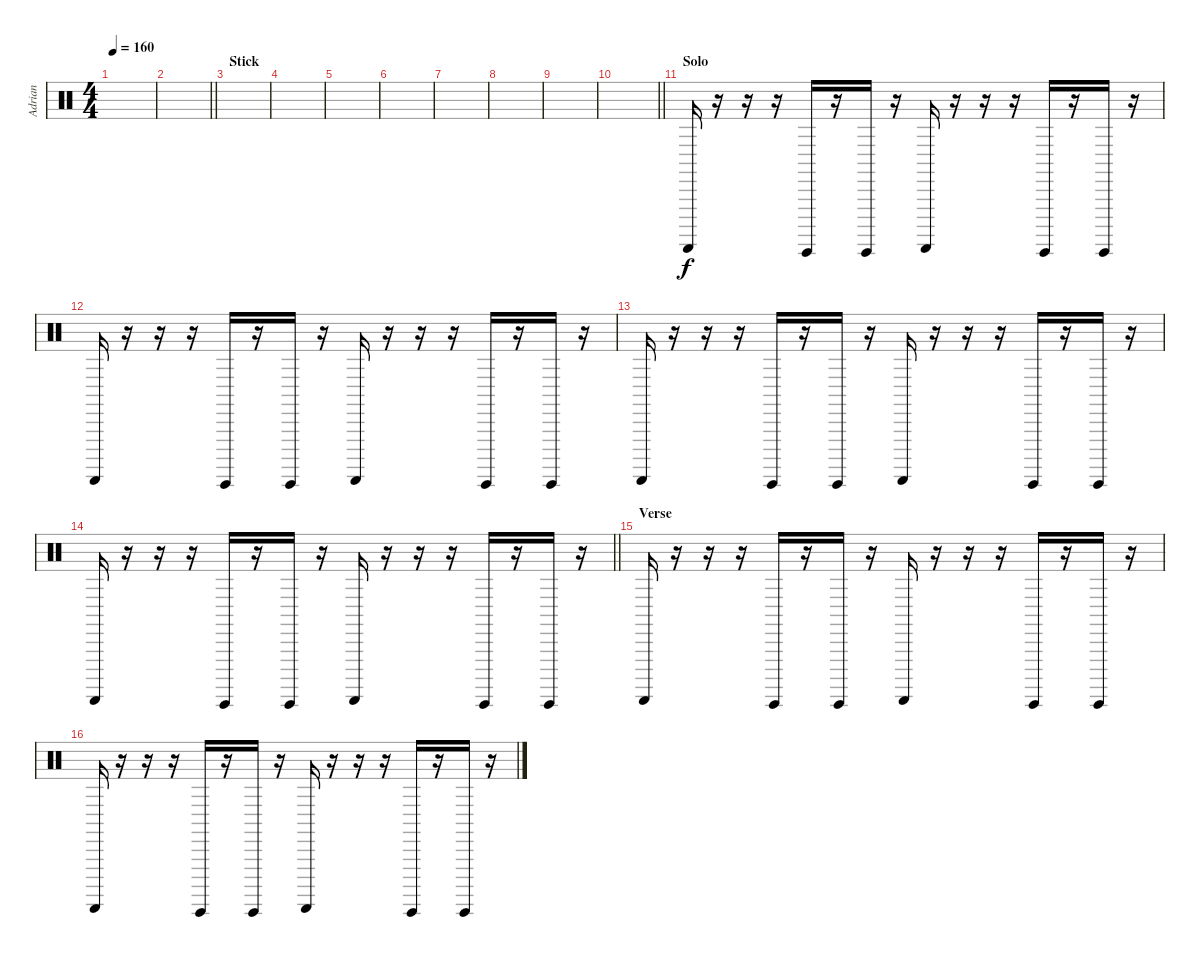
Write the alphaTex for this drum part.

\track ("Adrian" "Adrian") {instrument percussion}
\staff {score}
\articulation defaults
\ts (4 4)
\tempo 160
\clef neutral
\ks c
|
\barLineRight lightlight
|
\section ("" "Stick")
|
|
|
|
|
|
|
\barLineRight lightlight
|
\section ("" "Solo")
"Guiro (scrap-return)".16 r.16 r.16 r.16 "Guiro (hit)".16 r.16 "Guiro (hit)".16 r.16 "Guiro (scrap-return)".16 r.16 r.16 r.16 "Guiro (hit)".16 r.16 "Guiro (hit)".16 r.16 |
"Guiro (scrap-return)".16 r.16 r.16 r.16 "Guiro (hit)".16 r.16 "Guiro (hit)".16 r.16 "Guiro (scrap-return)".16 r.16 r.16 r.16 "Guiro (hit)".16 r.16 "Guiro (hit)".16 r.16 |
"Guiro (scrap-return)".16 r.16 r.16 r.16 "Guiro (hit)".16 r.16 "Guiro (hit)".16 r.16 "Guiro (scrap-return)".16 r.16 r.16 r.16 "Guiro (hit)".16 r.16 "Guiro (hit)".16 r.16 |
\barLineRight lightlight "Guiro (scrap-return)".16
r.16 r.16 r.16 "Guiro (hit)".16 r.16 "Guiro (hit)".16 r.16 "Guiro (scrap-return)".16 r.16 r.16 r.16 "Guiro (hit)".16 r.16 "Guiro (hit)".16 r.16 |
\section ("" "Verse")
"Guiro (scrap-return)".16 r.16 r.16 r.16 "Guiro (hit)".16 r.16 "Guiro (hit)".16 r.16 "Guiro (scrap-return)".16 r.16 r.16 r.16 "Guiro (hit)".16 r.16 "Guiro (hit)".16 r.16 |
"Guiro (scrap-return)".16 r.16 r.16 r.16 "Guiro (hit)".16 r.16 "Guiro (hit)".16 r.16 "Guiro (scrap-return)".16 r.16 r.16 r.16 "Guiro (hit)".16 r.16 "Guiro (hit)".16 r.16
